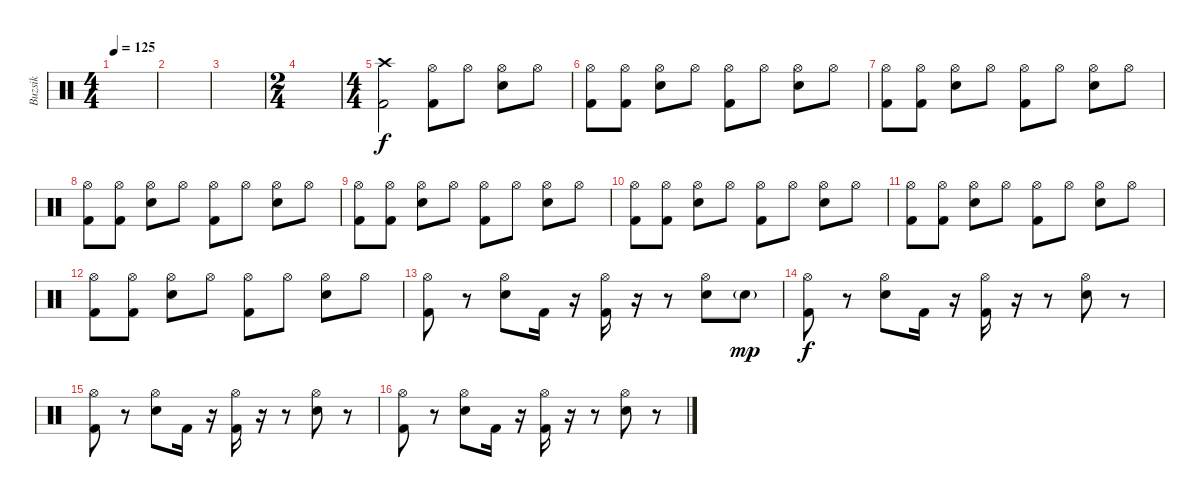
\track ("Buzsik" "Buzsik") {instrument percussion}
\staff {score}
\articulation defaults
\ts (4 4)
\tempo 125
\clef neutral
\ks c
|
|
|
\ts (2 4)
|
\ts (4 4)
("Crash high (hit)" "Kick (hit) 2").2 ("Hi-Hat (open)" "Kick (hit) 2").8 "Hi-Hat (open)".8 ("Hi-Hat (open)" "Electric Snare (hit)").8 "Hi-Hat (open)".8 |
("Hi-Hat (open)" "Kick (hit) 2").8 ("Hi-Hat (open)" "Kick (hit) 2").8 ("Hi-Hat (open)" "Electric Snare (hit)").8 "Hi-Hat (open)".8 ("Hi-Hat (open)" "Kick (hit) 2").8 "Hi-Hat (open)".8 ("Hi-Hat (open)" "Electric Snare (hit)").8 "Hi-Hat (open)".8 |
("Hi-Hat (open)" "Kick (hit) 2").8 ("Hi-Hat (open)" "Kick (hit) 2").8 ("Hi-Hat (open)" "Electric Snare (hit)").8 "Hi-Hat (open)".8 ("Hi-Hat (open)" "Kick (hit) 2").8 "Hi-Hat (open)".8 ("Hi-Hat (open)" "Electric Snare (hit)").8 "Hi-Hat (open)".8 |
("Hi-Hat (open)" "Kick (hit) 2").8 ("Hi-Hat (open)" "Kick (hit) 2").8 ("Hi-Hat (open)" "Electric Snare (hit)").8 "Hi-Hat (open)".8 ("Hi-Hat (open)" "Kick (hit) 2").8 "Hi-Hat (open)".8 ("Hi-Hat (open)" "Electric Snare (hit)").8 "Hi-Hat (open)".8 |
("Hi-Hat (open)" "Kick (hit) 2").8 ("Hi-Hat (open)" "Kick (hit) 2").8 ("Hi-Hat (open)" "Electric Snare (hit)").8 "Hi-Hat (open)".8 ("Hi-Hat (open)" "Kick (hit) 2").8 "Hi-Hat (open)".8 ("Hi-Hat (open)" "Electric Snare (hit)").8 "Hi-Hat (open)".8 |
("Hi-Hat (open)" "Kick (hit) 2").8 ("Hi-Hat (open)" "Kick (hit) 2").8 ("Hi-Hat (open)" "Electric Snare (hit)").8 "Hi-Hat (open)".8 ("Hi-Hat (open)" "Kick (hit) 2").8 "Hi-Hat (open)".8 ("Hi-Hat (open)" "Electric Snare (hit)").8 "Hi-Hat (open)".8 |
("Hi-Hat (open)" "Kick (hit) 2").8 ("Hi-Hat (open)" "Kick (hit) 2").8 ("Hi-Hat (open)" "Electric Snare (hit)").8 "Hi-Hat (open)".8 ("Hi-Hat (open)" "Kick (hit) 2").8 "Hi-Hat (open)".8 ("Hi-Hat (open)" "Electric Snare (hit)").8 "Hi-Hat (open)".8 |
("Hi-Hat (open)" "Kick (hit) 2").8 ("Hi-Hat (open)" "Kick (hit) 2").8 ("Hi-Hat (open)" "Electric Snare (hit)").8 "Hi-Hat (open)".8 ("Hi-Hat (open)" "Kick (hit) 2").8 "Hi-Hat (open)".8 ("Hi-Hat (open)" "Electric Snare (hit)").8 "Hi-Hat (open)".8 |
("Hi-Hat (open)" "Kick (hit) 2").8 r.8 ("Hi-Hat (open)" "Electric Snare (hit)").8 "Kick (hit) 2".16 r.16 ("Hi-Hat (open)" "Kick (hit) 2").16 r.16 r.8 ("Hi-Hat (open)" "Electric Snare (hit)").8 "Electric Snare (hit)"{g}.8{dy mp} |
("Hi-Hat (open)" "Kick (hit) 2").8{dy f} r.8 ("Hi-Hat (open)" "Electric Snare (hit)").8 "Kick (hit) 2".16 r.16 ("Hi-Hat (open)" "Kick (hit) 2").16 r.16 r.8 ("Hi-Hat (open)" "Electric Snare (hit)").8 r.8 |
("Hi-Hat (open)" "Kick (hit) 2").8 r.8 ("Hi-Hat (open)" "Electric Snare (hit)").8 "Kick (hit) 2".16 r.16 ("Hi-Hat (open)" "Kick (hit) 2").16 r.16 r.8 ("Hi-Hat (open)" "Electric Snare (hit)").8 r.8 |
("Hi-Hat (open)" "Kick (hit) 2").8 r.8 ("Hi-Hat (open)" "Electric Snare (hit)").8 "Kick (hit) 2".16 r.16 ("Hi-Hat (open)" "Kick (hit) 2").16 r.16 r.8 ("Hi-Hat (open)" "Electric Snare (hit)").8 r.8
